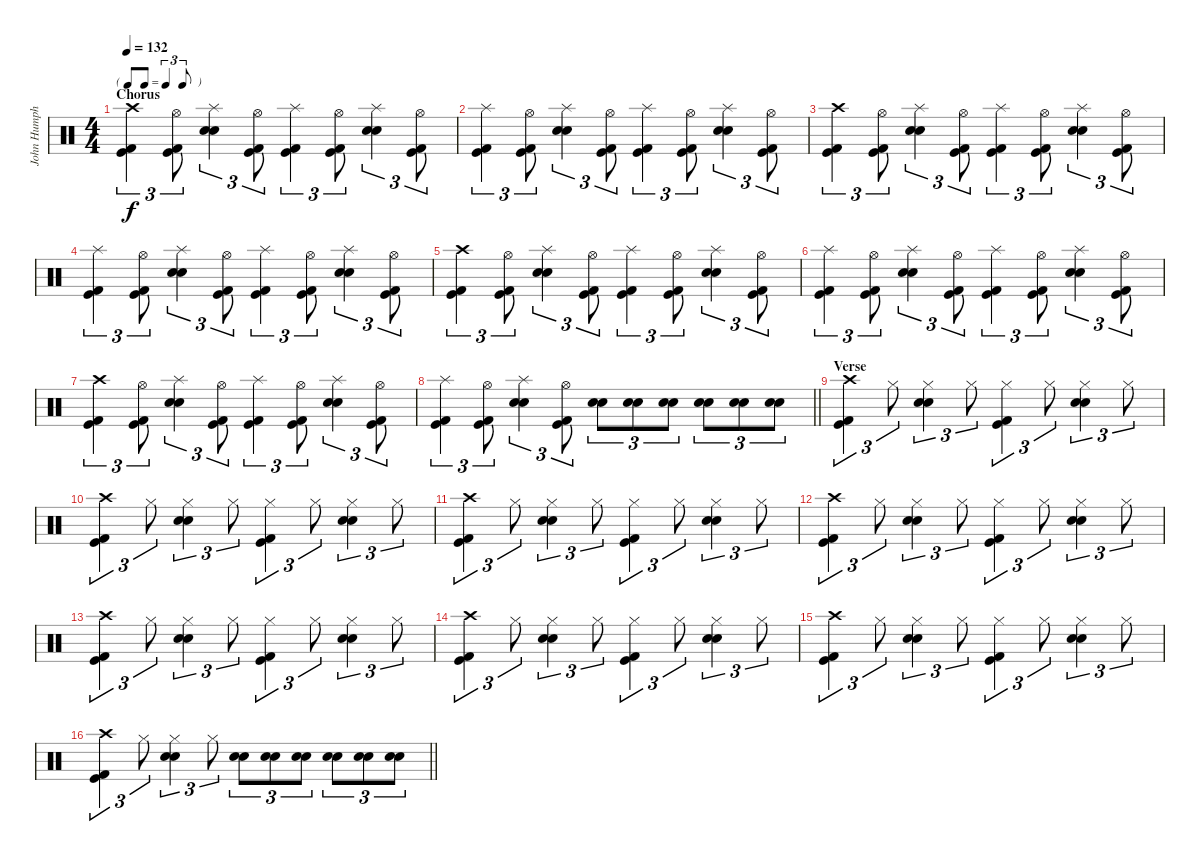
\track ("John Humphrey" "John Humph") {instrument percussion}
\staff {score}
\articulation defaults
\ts (4 4)
\tf triplet8th
\section ("" "Chorus")
\tempo 132
\clef neutral
\ks c
("Crash high (hit)" "Kick (hit) 2" "Kick (hit)").4{tu (3 2) dy f} ("Hi-Hat (open)" "Kick (hit) 2" "Kick (hit)").8{tu (3 2)} ("Splash (hit)" "Electric Snare (hit)" "Snare (hit) 2").4{tu (3 2)} ("Hi-Hat (open)" "Kick (hit) 2" "Kick (hit)").8{tu (3 2)} ("Splash (hit)" "Kick (hit) 2" "Kick (hit)").4{tu (3 2)} ("Hi-Hat (open)" "Kick (hit) 2" "Kick (hit)").8{tu (3 2)} ("Splash (hit)" "Electric Snare (hit)" "Snare (hit) 2").4{tu (3 2)} ("Hi-Hat (open)" "Kick (hit) 2" "Kick (hit)").8{tu (3 2)} |
("Splash (hit)" "Kick (hit) 2" "Kick (hit)").4{tu (3 2)} ("Hi-Hat (open)" "Kick (hit) 2" "Kick (hit)").8{tu (3 2)} ("Splash (hit)" "Electric Snare (hit)" "Snare (hit) 2").4{tu (3 2)} ("Hi-Hat (open)" "Kick (hit) 2" "Kick (hit)").8{tu (3 2)} ("Splash (hit)" "Kick (hit) 2" "Kick (hit)").4{tu (3 2)} ("Hi-Hat (open)" "Kick (hit) 2" "Kick (hit)").8{tu (3 2)} ("Splash (hit)" "Electric Snare (hit)" "Snare (hit) 2").4{tu (3 2)} ("Hi-Hat (open)" "Kick (hit) 2" "Kick (hit)").8{tu (3 2)} |
("Crash high (hit)" "Kick (hit) 2" "Kick (hit)").4{tu (3 2)} ("Hi-Hat (open)" "Kick (hit) 2" "Kick (hit)").8{tu (3 2)} ("Splash (hit)" "Electric Snare (hit)" "Snare (hit) 2").4{tu (3 2)} ("Hi-Hat (open)" "Kick (hit) 2" "Kick (hit)").8{tu (3 2)} ("Splash (hit)" "Kick (hit) 2" "Kick (hit)").4{tu (3 2)} ("Hi-Hat (open)" "Kick (hit) 2" "Kick (hit)").8{tu (3 2)} ("Splash (hit)" "Electric Snare (hit)" "Snare (hit) 2").4{tu (3 2)} ("Hi-Hat (open)" "Kick (hit) 2" "Kick (hit)").8{tu (3 2)} |
("Splash (hit)" "Kick (hit) 2" "Kick (hit)").4{tu (3 2)} ("Hi-Hat (open)" "Kick (hit) 2" "Kick (hit)").8{tu (3 2)} ("Splash (hit)" "Electric Snare (hit)" "Snare (hit) 2").4{tu (3 2)} ("Hi-Hat (open)" "Kick (hit) 2" "Kick (hit)").8{tu (3 2)} ("Splash (hit)" "Kick (hit) 2" "Kick (hit)").4{tu (3 2)} ("Hi-Hat (open)" "Kick (hit) 2" "Kick (hit)").8{tu (3 2)} ("Splash (hit)" "Electric Snare (hit)" "Snare (hit) 2").4{tu (3 2)} ("Hi-Hat (open)" "Kick (hit) 2" "Kick (hit)").8{tu (3 2)} |
("Crash high (hit)" "Kick (hit) 2" "Kick (hit)").4{tu (3 2)} ("Hi-Hat (open)" "Kick (hit) 2" "Kick (hit)").8{tu (3 2)} ("Splash (hit)" "Electric Snare (hit)" "Snare (hit) 2").4{tu (3 2)} ("Hi-Hat (open)" "Kick (hit) 2" "Kick (hit)").8{tu (3 2)} ("Splash (hit)" "Kick (hit) 2" "Kick (hit)").4{tu (3 2)} ("Hi-Hat (open)" "Kick (hit) 2" "Kick (hit)").8{tu (3 2)} ("Splash (hit)" "Electric Snare (hit)" "Snare (hit) 2").4{tu (3 2)} ("Hi-Hat (open)" "Kick (hit) 2" "Kick (hit)").8{tu (3 2)} |
("Splash (hit)" "Kick (hit) 2" "Kick (hit)").4{tu (3 2)} ("Hi-Hat (open)" "Kick (hit) 2" "Kick (hit)").8{tu (3 2)} ("Splash (hit)" "Electric Snare (hit)" "Snare (hit) 2").4{tu (3 2)} ("Hi-Hat (open)" "Kick (hit) 2" "Kick (hit)").8{tu (3 2)} ("Splash (hit)" "Kick (hit) 2" "Kick (hit)").4{tu (3 2)} ("Hi-Hat (open)" "Kick (hit) 2" "Kick (hit)").8{tu (3 2)} ("Splash (hit)" "Electric Snare (hit)" "Snare (hit) 2").4{tu (3 2)} ("Hi-Hat (open)" "Kick (hit) 2" "Kick (hit)").8{tu (3 2)} |
("Crash high (hit)" "Kick (hit) 2" "Kick (hit)").4{tu (3 2)} ("Hi-Hat (open)" "Kick (hit) 2" "Kick (hit)").8{tu (3 2)} ("Splash (hit)" "Electric Snare (hit)" "Snare (hit) 2").4{tu (3 2)} ("Hi-Hat (open)" "Kick (hit) 2" "Kick (hit)").8{tu (3 2)} ("Splash (hit)" "Kick (hit) 2" "Kick (hit)").4{tu (3 2)} ("Hi-Hat (open)" "Kick (hit) 2" "Kick (hit)").8{tu (3 2)} ("Splash (hit)" "Electric Snare (hit)" "Snare (hit) 2").4{tu (3 2)} ("Hi-Hat (open)" "Kick (hit) 2" "Kick (hit)").8{tu (3 2)} |
\barLineRight lightlight
("Splash (hit)" "Kick (hit) 2" "Kick (hit)").4{tu (3 2)} ("Hi-Hat (open)" "Kick (hit) 2" "Kick (hit)").8{tu (3 2)} ("Splash (hit)" "Electric Snare (hit)" "Snare (hit) 2").4{tu (3 2)} ("Hi-Hat (open)" "Kick (hit) 2" "Kick (hit)").8{tu (3 2)} ("Electric Snare (hit)" "Snare (hit) 2").8{tu (3 2)} ("Electric Snare (hit)" "Snare (hit) 2").8{tu (3 2)} ("Electric Snare (hit)" "Snare (hit) 2").8{tu (3 2)} ("Electric Snare (hit)" "Snare (hit) 2").8{tu (3 2)} ("Electric Snare (hit)" "Snare (hit) 2").8{tu (3 2)} ("Electric Snare (hit)" "Snare (hit) 2").8{tu (3 2)} |
\section ("" "Verse")
("Crash high (hit)" "Kick (hit) 2" "Kick (hit)").4{tu (3 2)} "Hi-Hat (closed)".8{tu (3 2)} ("Hi-Hat (closed)" "Electric Snare (hit)" "Snare (hit) 2").4{tu (3 2)} "Hi-Hat (closed)".8{tu (3 2)} ("Hi-Hat (closed)" "Kick (hit) 2" "Kick (hit)").4{tu (3 2)} "Hi-Hat (closed)".8{tu (3 2)} ("Hi-Hat (closed)" "Electric Snare (hit)" "Snare (hit) 2").4{tu (3 2)} "Hi-Hat (closed)".8{tu (3 2)} |
("Crash high (hit)" "Kick (hit) 2" "Kick (hit)").4{tu (3 2)} "Hi-Hat (closed)".8{tu (3 2)} ("Hi-Hat (closed)" "Electric Snare (hit)" "Snare (hit) 2").4{tu (3 2)} "Hi-Hat (closed)".8{tu (3 2)} ("Hi-Hat (closed)" "Kick (hit) 2" "Kick (hit)").4{tu (3 2)} "Hi-Hat (closed)".8{tu (3 2)} ("Hi-Hat (closed)" "Electric Snare (hit)" "Snare (hit) 2").4{tu (3 2)} "Hi-Hat (closed)".8{tu (3 2)} |
("Crash high (hit)" "Kick (hit) 2" "Kick (hit)").4{tu (3 2)} "Hi-Hat (closed)".8{tu (3 2)} ("Hi-Hat (closed)" "Electric Snare (hit)" "Snare (hit) 2").4{tu (3 2)} "Hi-Hat (closed)".8{tu (3 2)} ("Hi-Hat (closed)" "Kick (hit) 2" "Kick (hit)").4{tu (3 2)} "Hi-Hat (closed)".8{tu (3 2)} ("Hi-Hat (closed)" "Electric Snare (hit)" "Snare (hit) 2").4{tu (3 2)} "Hi-Hat (closed)".8{tu (3 2)} |
("Crash high (hit)" "Kick (hit) 2" "Kick (hit)").4{tu (3 2)} "Hi-Hat (closed)".8{tu (3 2)} ("Hi-Hat (closed)" "Electric Snare (hit)" "Snare (hit) 2").4{tu (3 2)} "Hi-Hat (closed)".8{tu (3 2)} ("Hi-Hat (closed)" "Kick (hit) 2" "Kick (hit)").4{tu (3 2)} "Hi-Hat (closed)".8{tu (3 2)} ("Hi-Hat (closed)" "Electric Snare (hit)" "Snare (hit) 2").4{tu (3 2)} "Hi-Hat (closed)".8{tu (3 2)} |
("Crash high (hit)" "Kick (hit) 2" "Kick (hit)").4{tu (3 2)} "Hi-Hat (closed)".8{tu (3 2)} ("Hi-Hat (closed)" "Electric Snare (hit)" "Snare (hit) 2").4{tu (3 2)} "Hi-Hat (closed)".8{tu (3 2)} ("Hi-Hat (closed)" "Kick (hit) 2" "Kick (hit)").4{tu (3 2)} "Hi-Hat (closed)".8{tu (3 2)} ("Hi-Hat (closed)" "Electric Snare (hit)" "Snare (hit) 2").4{tu (3 2)} "Hi-Hat (closed)".8{tu (3 2)} |
("Crash high (hit)" "Kick (hit) 2" "Kick (hit)").4{tu (3 2)} "Hi-Hat (closed)".8{tu (3 2)} ("Hi-Hat (closed)" "Electric Snare (hit)" "Snare (hit) 2").4{tu (3 2)} "Hi-Hat (closed)".8{tu (3 2)} ("Hi-Hat (closed)" "Kick (hit) 2" "Kick (hit)").4{tu (3 2)} "Hi-Hat (closed)".8{tu (3 2)} ("Hi-Hat (closed)" "Electric Snare (hit)" "Snare (hit) 2").4{tu (3 2)} "Hi-Hat (closed)".8{tu (3 2)} |
("Crash high (hit)" "Kick (hit) 2" "Kick (hit)").4{tu (3 2)} "Hi-Hat (closed)".8{tu (3 2)} ("Hi-Hat (closed)" "Electric Snare (hit)" "Snare (hit) 2").4{tu (3 2)} "Hi-Hat (closed)".8{tu (3 2)} ("Hi-Hat (closed)" "Kick (hit) 2" "Kick (hit)").4{tu (3 2)} "Hi-Hat (closed)".8{tu (3 2)} ("Hi-Hat (closed)" "Electric Snare (hit)" "Snare (hit) 2").4{tu (3 2)} "Hi-Hat (closed)".8{tu (3 2)} |
\barLineRight lightlight
("Crash high (hit)" "Kick (hit) 2" "Kick (hit)").4{tu (3 2)} "Hi-Hat (closed)".8{tu (3 2)} ("Hi-Hat (closed)" "Electric Snare (hit)" "Snare (hit) 2").4{tu (3 2)} "Hi-Hat (closed)".8{tu (3 2)} ("Electric Snare (hit)" "Snare (hit) 2").8{tu (3 2)} ("Electric Snare (hit)" "Snare (hit) 2").8{tu (3 2)} ("Electric Snare (hit)" "Snare (hit) 2").8{tu (3 2)} ("Electric Snare (hit)" "Snare (hit) 2").8{tu (3 2)} ("Electric Snare (hit)" "Snare (hit) 2").8{tu (3 2)} ("Electric Snare (hit)" "Snare (hit) 2").8{tu (3 2)}
